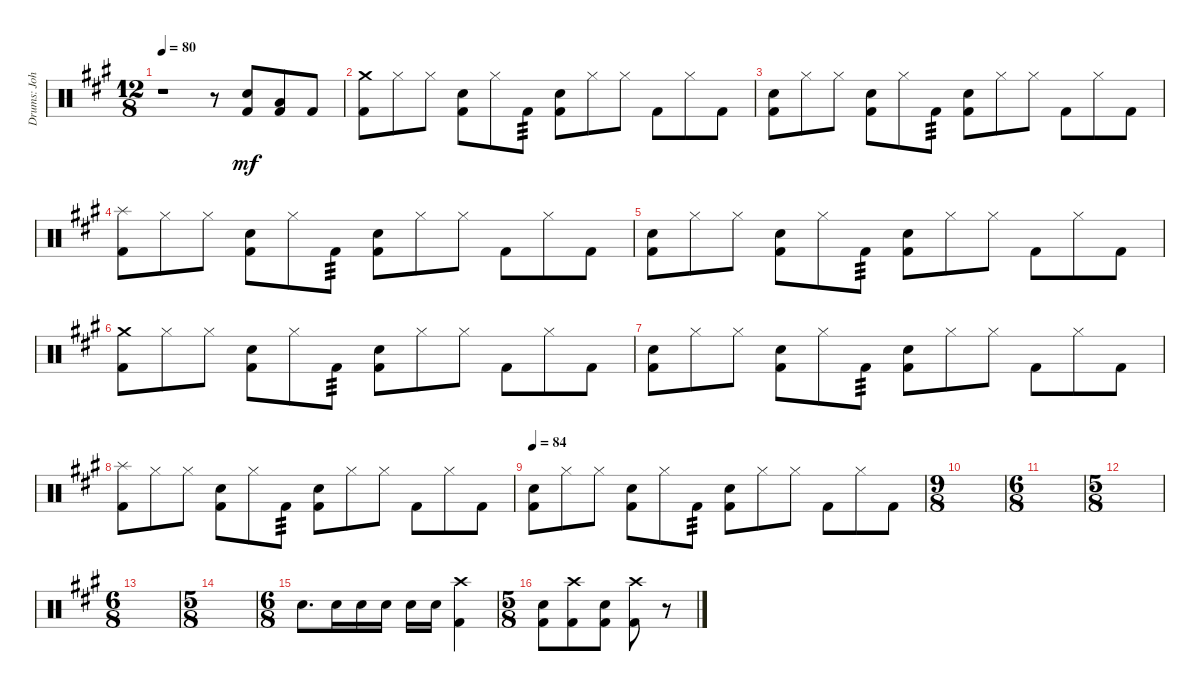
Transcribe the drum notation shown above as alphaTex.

\track ("Drums: John" "Drums: Joh") {instrument percussion}
\staff {score}
\articulation defaults
\ts (12 8)
\tempo 80
\clef neutral
\ks a
r.1{dy mf} r.8 ("Electric Snare (hit)" "Kick (hit) 2").8 ("Low Tom (hit)" "Kick (hit) 2").8 "Kick (hit) 2".8 |
("Crash medium (hit)" "Kick (hit) 2").8 "Hi-Hat (closed)".8 "Hi-Hat (closed)".8 ("Electric Snare (hit)" "Kick (hit) 2").8 "Hi-Hat (closed)".8 "Kick (hit) 2".8{tp 3} ("Electric Snare (hit)" "Kick (hit) 2").8 "Hi-Hat (closed)".8 "Hi-Hat (closed)".8 "Kick (hit) 2".8 "Hi-Hat (closed)".8 "Kick (hit) 2".8 |
("Electric Snare (hit)" "Kick (hit) 2").8 "Hi-Hat (closed)".8 "Hi-Hat (closed)".8 ("Electric Snare (hit)" "Kick (hit) 2").8 "Hi-Hat (closed)".8 "Kick (hit) 2".8{tp 3} ("Electric Snare (hit)" "Kick (hit) 2").8 "Hi-Hat (closed)".8 "Hi-Hat (closed)".8 "Kick (hit) 2".8 "Hi-Hat (closed)".8 "Kick (hit) 2".8 |
("Splash (hit)" "Kick (hit) 2").8 "Hi-Hat (closed)".8 "Hi-Hat (closed)".8 ("Electric Snare (hit)" "Kick (hit) 2").8 "Hi-Hat (closed)".8 "Kick (hit) 2".8{tp 3} ("Electric Snare (hit)" "Kick (hit) 2").8 "Hi-Hat (closed)".8 "Hi-Hat (closed)".8 "Kick (hit) 2".8 "Hi-Hat (closed)".8 "Kick (hit) 2".8 |
("Electric Snare (hit)" "Kick (hit) 2").8 "Hi-Hat (closed)".8 "Hi-Hat (closed)".8 ("Electric Snare (hit)" "Kick (hit) 2").8 "Hi-Hat (closed)".8 "Kick (hit) 2".8{tp 3} ("Electric Snare (hit)" "Kick (hit) 2").8 "Hi-Hat (closed)".8 "Hi-Hat (closed)".8 "Kick (hit) 2".8 "Hi-Hat (closed)".8 "Kick (hit) 2".8 |
("Crash medium (hit)" "Kick (hit) 2").8 "Hi-Hat (closed)".8 "Hi-Hat (closed)".8 ("Electric Snare (hit)" "Kick (hit) 2").8 "Hi-Hat (closed)".8 "Kick (hit) 2".8{tp 3} ("Electric Snare (hit)" "Kick (hit) 2").8 "Hi-Hat (closed)".8 "Hi-Hat (closed)".8 "Kick (hit) 2".8 "Hi-Hat (closed)".8 "Kick (hit) 2".8 |
("Electric Snare (hit)" "Kick (hit) 2").8 "Hi-Hat (closed)".8 "Hi-Hat (closed)".8 ("Electric Snare (hit)" "Kick (hit) 2").8 "Hi-Hat (closed)".8 "Kick (hit) 2".8{tp 3} ("Electric Snare (hit)" "Kick (hit) 2").8 "Hi-Hat (closed)".8 "Hi-Hat (closed)".8 "Kick (hit) 2".8 "Hi-Hat (closed)".8 "Kick (hit) 2".8 |
("Splash (hit)" "Kick (hit) 2").8 "Hi-Hat (closed)".8 "Hi-Hat (closed)".8 ("Electric Snare (hit)" "Kick (hit) 2").8 "Hi-Hat (closed)".8 "Kick (hit) 2".8{tp 3} ("Electric Snare (hit)" "Kick (hit) 2").8 "Hi-Hat (closed)".8 "Hi-Hat (closed)".8 "Kick (hit) 2".8 "Hi-Hat (closed)".8 "Kick (hit) 2".8 |
\tempo 84
("Electric Snare (hit)" "Kick (hit) 2").8 "Hi-Hat (closed)".8 "Hi-Hat (closed)".8 ("Electric Snare (hit)" "Kick (hit) 2").8 "Hi-Hat (closed)".8 "Kick (hit) 2".8{tp 3} ("Electric Snare (hit)" "Kick (hit) 2").8 "Hi-Hat (closed)".8 "Hi-Hat (closed)".8 "Kick (hit) 2".8 "Hi-Hat (closed)".8 "Kick (hit) 2".8 |
\ts (9 8)
|
\ts (6 8)
|
\ts (5 8)
|
\ts (6 8)
|
\ts (5 8)
|
\ts (6 8)
"Electric Snare (hit)".8{d} "Electric Snare (hit)".16 "Electric Snare (hit)".16 "Electric Snare (hit)".16 "Electric Snare (hit)".16 "Electric Snare (hit)".16 ("Crash high (hit)" "Kick (hit) 2").4 |
\ts (5 8)
("Electric Snare (hit)" "Kick (hit) 2").8 ("Crash high (hit)" "Kick (hit) 2").8 ("Electric Snare (hit)" "Kick (hit) 2").8 ("Crash high (hit)" "Kick (hit) 2").8 r.8
